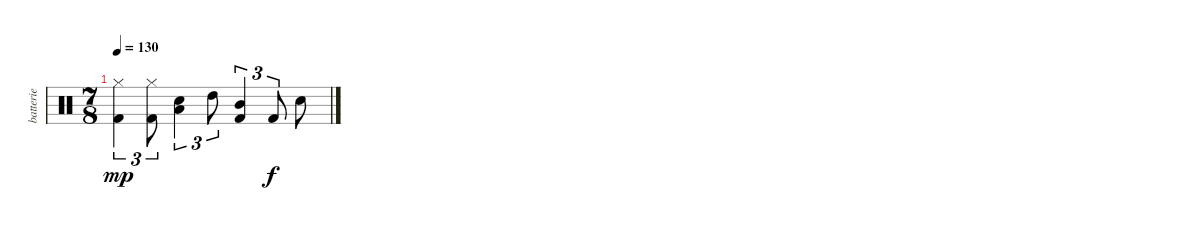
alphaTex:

\track ("batterie" "batterie") {instrument percussion}
\staff {score}
\articulation defaults
\ts (7 8)
\tempo 130
\clef neutral
\ks c
("Hi-Hat (closed)" "Kick (hit) 2").4{tu (3 2) dy mp} ("Hi-Hat (closed)" "Kick (hit) 2").8{tu (3 2)} ("Low Tom (hit)" "Electric Snare (hit)").4{tu (3 2)} "High Tom (hit)".8{tu (3 2)} ("Mid Tom (hit)" "Kick (hit) 2").4{tu (3 2)} "Kick (hit) 2".8{tu (3 2) dy f} "Electric Snare (hit)".8
